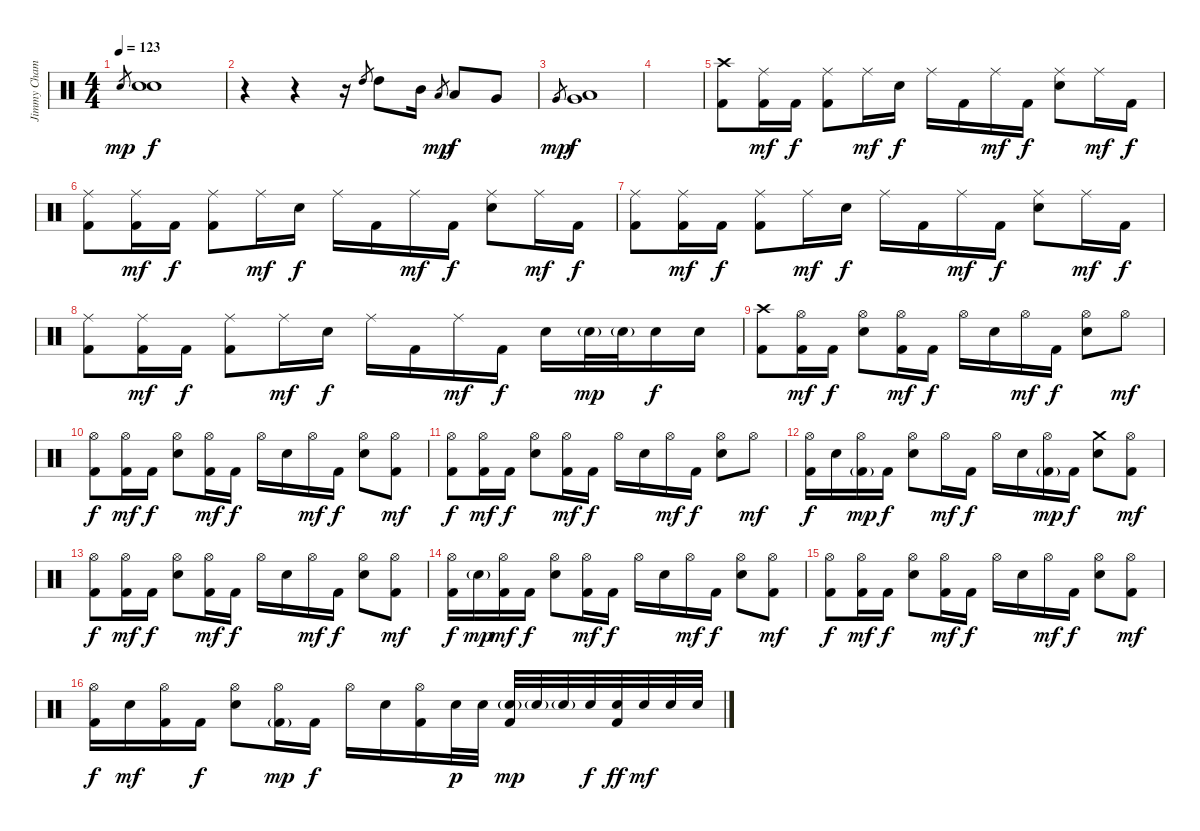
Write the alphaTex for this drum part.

\track ("Jimmy Chamberlin" "Jimmy Cham") {instrument percussion}
\staff {score}
\articulation defaults
\ts (4 4)
\tempo 123
\clef neutral
\ks c "Electric Snare (hit)".8{gr dy mp}
("Electric Snare (hit)" "Electric Snare (hit)").1{dy f} |
r.4 r.4 r.16 "High Tom (hit)".8{gr} "High Tom (hit)".8 "Mid Tom (hit)".16 "Low Tom (hit)".8{gr dy mp} "Low Tom (hit)".8{dy f} "Very Low Tom (hit)".8 |
"Very Low Tom (hit)".8{gr dy mp} ("Very Low Tom (hit)" "Low Floor Tom (hit)").1{dy f} |
|
("Crash high (hit)" "Kick (hit) 2").8 ("Ride (middle)" "Kick (hit) 2").16{dy mf} "Kick (hit) 2".16{dy f} ("Ride (middle)" "Kick (hit) 2").8 "Ride (middle)".16{dy mf} "Electric Snare (hit)".16{dy f} "Ride (middle)".16 "Kick (hit) 2".16 "Ride (middle)".16{dy mf} "Kick (hit) 2".16{dy f} ("Ride (middle)" "Electric Snare (hit)").8 "Ride (middle)".16{dy mf} "Kick (hit) 2".16{dy f} |
("Ride (middle)" "Kick (hit) 2").8 ("Ride (middle)" "Kick (hit) 2").16{dy mf} "Kick (hit) 2".16{dy f} ("Ride (middle)" "Kick (hit) 2").8 "Ride (middle)".16{dy mf} "Electric Snare (hit)".16{dy f} "Ride (middle)".16 "Kick (hit) 2".16 "Ride (middle)".16{dy mf} "Kick (hit) 2".16{dy f} ("Ride (middle)" "Electric Snare (hit)").8 "Ride (middle)".16{dy mf} "Kick (hit) 2".16{dy f} |
("Ride (middle)" "Kick (hit) 2").8 ("Ride (middle)" "Kick (hit) 2").16{dy mf} "Kick (hit) 2".16{dy f} ("Ride (middle)" "Kick (hit) 2").8 "Ride (middle)".16{dy mf} "Electric Snare (hit)".16{dy f} "Ride (middle)".16 "Kick (hit) 2".16 "Ride (middle)".16{dy mf} "Kick (hit) 2".16{dy f} ("Ride (middle)" "Electric Snare (hit)").8 "Ride (middle)".16{dy mf} "Kick (hit) 2".16{dy f} |
("Ride (middle)" "Kick (hit) 2").8 ("Ride (middle)" "Kick (hit) 2").16{dy mf} "Kick (hit) 2".16{dy f} ("Ride (middle)" "Kick (hit) 2").8 "Ride (middle)".16{dy mf} "Electric Snare (hit)".16{dy f} "Ride (middle)".16 "Kick (hit) 2".16 "Ride (middle)".16{dy mf} "Kick (hit) 2".16{dy f} "Electric Snare (hit)".16 "Electric Snare (hit)"{g}.32{dy mp} "Electric Snare (hit)"{g}.32 "Electric Snare (hit)".16{dy f} "Electric Snare (hit)".16 |
("Crash high (hit)" "Kick (hit) 2").8 ("Hi-Hat (open)" "Kick (hit) 2").16{dy mf} "Kick (hit) 2".16{dy f} ("Hi-Hat (open)" "Electric Snare (hit)").8 ("Hi-Hat (open)" "Kick (hit) 2").16{dy mf} "Kick (hit) 2".16{dy f} "Hi-Hat (open)".16 "Electric Snare (hit)".16 "Hi-Hat (open)".16{dy mf} "Kick (hit) 2".16{dy f} ("Hi-Hat (open)" "Electric Snare (hit)").8 "Hi-Hat (open)".8{dy mf} |
("Hi-Hat (open)" "Kick (hit) 2").8{dy f} ("Hi-Hat (open)" "Kick (hit) 2").16{dy mf} "Kick (hit) 2".16{dy f} ("Hi-Hat (open)" "Electric Snare (hit)").8 ("Hi-Hat (open)" "Kick (hit) 2").16{dy mf} "Kick (hit) 2".16{dy f} "Hi-Hat (open)".16 "Electric Snare (hit)".16 "Hi-Hat (open)".16{dy mf} "Kick (hit) 2".16{dy f} ("Hi-Hat (open)" "Electric Snare (hit)").8 ("Hi-Hat (open)" "Kick (hit) 2").8{dy mf} |
("Hi-Hat (open)" "Kick (hit) 2").8{dy f} ("Hi-Hat (open)" "Kick (hit) 2").16{dy mf} "Kick (hit) 2".16{dy f} ("Hi-Hat (open)" "Electric Snare (hit)").8 ("Hi-Hat (open)" "Kick (hit) 2").16{dy mf} "Kick (hit) 2".16{dy f} "Hi-Hat (open)".16 "Electric Snare (hit)".16 "Hi-Hat (open)".16{dy mf} "Kick (hit) 2".16{dy f} ("Hi-Hat (open)" "Electric Snare (hit)").8 "Hi-Hat (open)".8{dy mf} |
("Hi-Hat (open)" "Kick (hit) 2").16{dy f} "Electric Snare (hit)".16 ("Hi-Hat (open)" "Kick (hit) 2"{g}).16{dy mp} "Kick (hit) 2".16{dy f} ("Hi-Hat (open)" "Electric Snare (hit)").8 "Hi-Hat (open)".16{dy mf} "Kick (hit) 2".16{dy f} "Hi-Hat (open)".16 "Electric Snare (hit)".16 ("Hi-Hat (open)" "Kick (hit) 2"{g}).16{dy mp} "Kick (hit) 2".16{dy f} ("Crash medium (hit)" "Electric Snare (hit)").8 ("Hi-Hat (open)" "Kick (hit) 2").8{dy mf} |
("Hi-Hat (open)" "Kick (hit) 2").8{dy f} ("Hi-Hat (open)" "Kick (hit) 2").16{dy mf} "Kick (hit) 2".16{dy f} ("Hi-Hat (open)" "Electric Snare (hit)").8 ("Hi-Hat (open)" "Kick (hit) 2").16{dy mf} "Kick (hit) 2".16{dy f} "Hi-Hat (open)".16 "Electric Snare (hit)".16 "Hi-Hat (open)".16{dy mf} "Kick (hit) 2".16{dy f} ("Hi-Hat (open)" "Electric Snare (hit)").8 ("Hi-Hat (open)" "Kick (hit) 2").8{dy mf} |
("Hi-Hat (open)" "Kick (hit) 2").16{dy f} "Electric Snare (hit)"{g}.16{dy mp} ("Hi-Hat (open)" "Kick (hit) 2").16{dy mf} "Kick (hit) 2".16{dy f} ("Hi-Hat (open)" "Electric Snare (hit)").8 ("Hi-Hat (open)" "Kick (hit) 2").16{dy mf} "Kick (hit) 2".16{dy f} "Hi-Hat (open)".16 "Electric Snare (hit)".16 "Hi-Hat (open)".16{dy mf} "Kick (hit) 2".16{dy f} ("Hi-Hat (open)" "Electric Snare (hit)").8 ("Hi-Hat (open)" "Kick (hit) 2").8{dy mf} |
("Hi-Hat (open)" "Kick (hit) 2").8{dy f} ("Hi-Hat (open)" "Kick (hit) 2").16{dy mf} "Kick (hit) 2".16{dy f} ("Hi-Hat (open)" "Electric Snare (hit)").8 ("Hi-Hat (open)" "Kick (hit) 2").16{dy mf} "Kick (hit) 2".16{dy f} "Hi-Hat (open)".16 "Electric Snare (hit)".16 "Hi-Hat (open)".16{dy mf} "Kick (hit) 2".16{dy f} ("Hi-Hat (open)" "Electric Snare (hit)").8 ("Hi-Hat (open)" "Kick (hit) 2").8{dy mf} |
("Hi-Hat (open)" "Kick (hit) 2").16{dy f} "Electric Snare (hit)".16{dy mf} ("Hi-Hat (open)" "Kick (hit) 2").16 "Kick (hit) 2".16{dy f} ("Hi-Hat (open)" "Electric Snare (hit)").8 ("Hi-Hat (open)" "Kick (hit) 2"{g}).16{dy mp} "Kick (hit) 2".16{dy f} "Hi-Hat (open)".16 "Electric Snare (hit)".16 ("Hi-Hat (open)" "Kick (hit) 2").16 "Electric Snare (hit)".32{dy p} "Electric Snare (hit)".32 ("Electric Snare (hit)"{g} "Kick (hit) 2").32{dy mp} "Electric Snare (hit)"{g}.32 "Electric Snare (hit)"{g}.32 "Electric Snare (hit)".32{dy f} ("Electric Snare (hit)" "Kick (hit) 2").32{dy ff} "Electric Snare (hit)".32{dy mf} "Electric Snare (hit)".32 "Electric Snare (hit)".32
